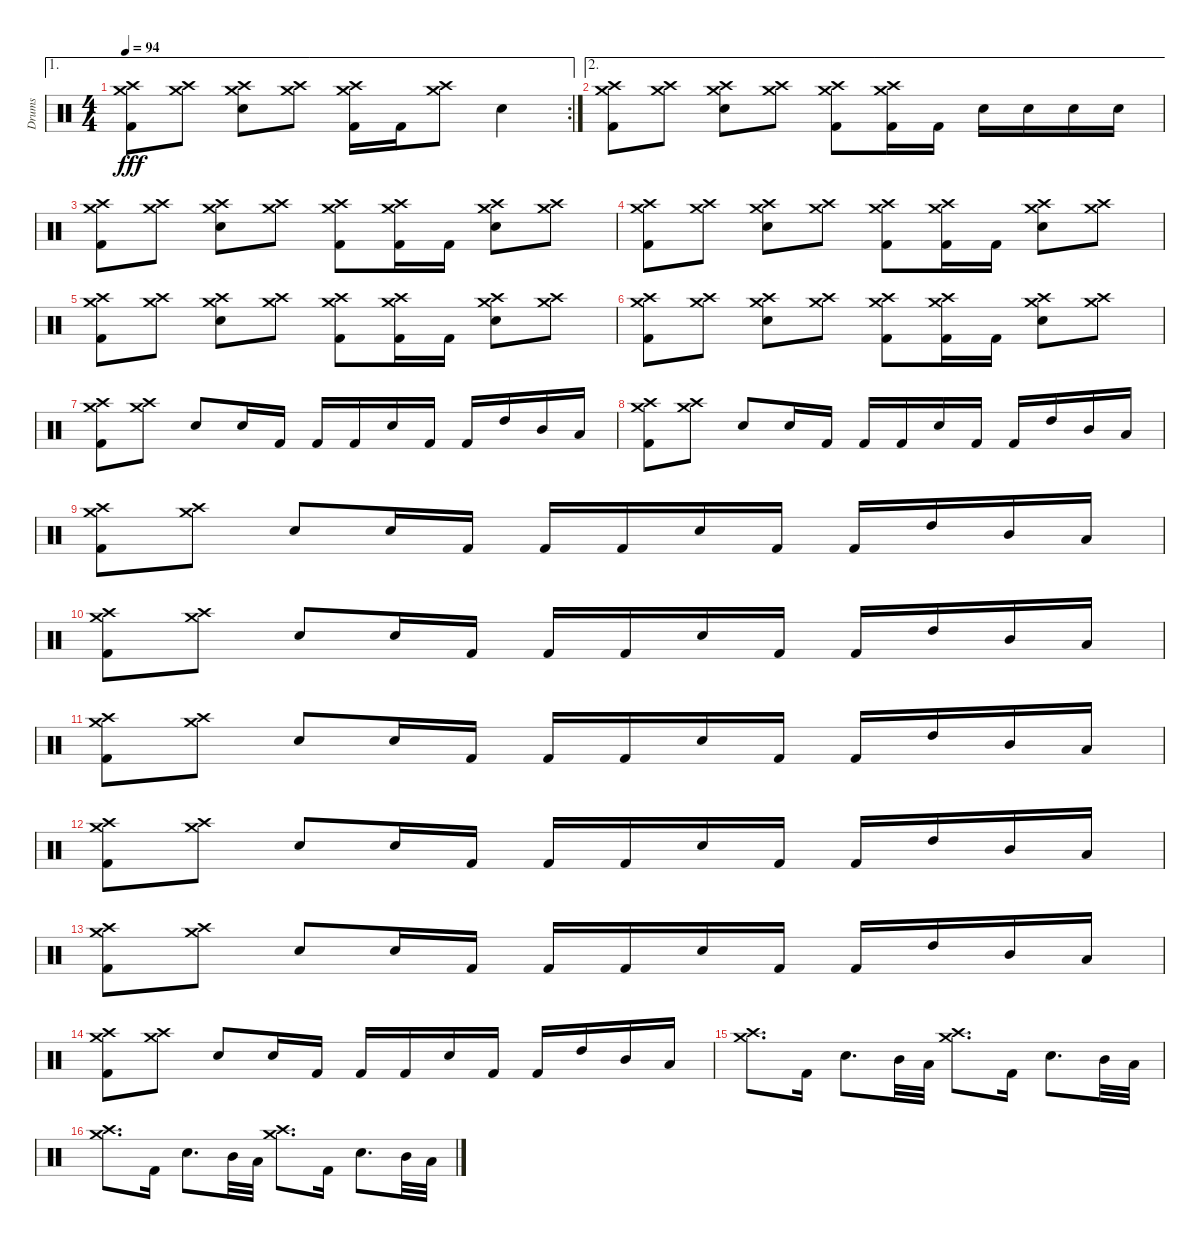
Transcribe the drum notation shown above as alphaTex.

\track ("Drums" "Drums") {instrument percussion}
\staff {score}
\articulation defaults
\ae 1
\rc 2
\ts (4 4)
\tempo 94
\clef neutral
\ks c
("Crash high (hit)" "Crash medium (hit)" "Kick (hit) 2").8{dy fff} ("Crash high (hit)" "Crash medium (hit)").8 ("Crash high (hit)" "Crash medium (hit)" "Snare (hit) 2").8 ("Crash high (hit)" "Crash medium (hit)").8 ("Crash high (hit)" "Crash medium (hit)" "Kick (hit) 2").16 "Kick (hit) 2".16 ("Crash high (hit)" "Crash medium (hit)").8 "Snare (hit) 2".4 |
\ae 2
("Crash high (hit)" "Crash medium (hit)" "Kick (hit) 2").8 ("Crash high (hit)" "Crash medium (hit)").8 ("Crash high (hit)" "Crash medium (hit)" "Snare (hit) 2").8 ("Crash high (hit)" "Crash medium (hit)").8 ("Crash high (hit)" "Crash medium (hit)" "Kick (hit) 2").8 ("Crash high (hit)" "Crash medium (hit)" "Kick (hit) 2").16 "Kick (hit) 2".16 "Snare (hit) 2".16 "Snare (hit) 2".16 "Snare (hit) 2".16 "Snare (hit) 2".16 |
("Crash high (hit)" "Crash medium (hit)" "Kick (hit) 2").8 ("Crash high (hit)" "Crash medium (hit)").8 ("Crash high (hit)" "Crash medium (hit)" "Snare (hit) 2").8 ("Crash high (hit)" "Crash medium (hit)").8 ("Crash high (hit)" "Crash medium (hit)" "Kick (hit) 2").8 ("Crash high (hit)" "Crash medium (hit)" "Kick (hit) 2").16 "Kick (hit) 2".16 ("Crash high (hit)" "Crash medium (hit)" "Snare (hit) 2").8 ("Crash high (hit)" "Crash medium (hit)").8 |
("Crash high (hit)" "Crash medium (hit)" "Kick (hit) 2").8 ("Crash high (hit)" "Crash medium (hit)").8 ("Crash high (hit)" "Crash medium (hit)" "Snare (hit) 2").8 ("Crash high (hit)" "Crash medium (hit)").8 ("Crash high (hit)" "Crash medium (hit)" "Kick (hit) 2").8 ("Crash high (hit)" "Crash medium (hit)" "Kick (hit) 2").16 "Kick (hit) 2".16 ("Crash high (hit)" "Crash medium (hit)" "Snare (hit) 2").8 ("Crash high (hit)" "Crash medium (hit)").8 |
("Crash high (hit)" "Crash medium (hit)" "Kick (hit) 2").8 ("Crash high (hit)" "Crash medium (hit)").8 ("Crash high (hit)" "Crash medium (hit)" "Snare (hit) 2").8 ("Crash high (hit)" "Crash medium (hit)").8 ("Crash high (hit)" "Crash medium (hit)" "Kick (hit) 2").8 ("Crash high (hit)" "Crash medium (hit)" "Kick (hit) 2").16 "Kick (hit) 2".16 ("Crash high (hit)" "Crash medium (hit)" "Snare (hit) 2").8 ("Crash high (hit)" "Crash medium (hit)").8 |
("Crash high (hit)" "Crash medium (hit)" "Kick (hit) 2").8 ("Crash high (hit)" "Crash medium (hit)").8 ("Crash high (hit)" "Crash medium (hit)" "Snare (hit) 2").8 ("Crash high (hit)" "Crash medium (hit)").8 ("Crash high (hit)" "Crash medium (hit)" "Kick (hit) 2").8 ("Crash high (hit)" "Crash medium (hit)" "Kick (hit) 2").16 "Kick (hit) 2".16 ("Crash high (hit)" "Crash medium (hit)" "Snare (hit) 2").8 ("Crash high (hit)" "Crash medium (hit)").8 |
("Crash high (hit)" "Crash medium (hit)" "Kick (hit) 2").8 ("Crash high (hit)" "Crash medium (hit)").8 "Snare (hit) 2".8 "Snare (hit) 2".16 "Kick (hit) 2".16 "Kick (hit) 2".16 "Kick (hit) 2".16 "Snare (hit) 2".16 "Kick (hit) 2".16 "Kick (hit) 2".16 "High Tom (hit)".16 "Mid Tom (hit)".16 "Low Tom (hit)".16 |
("Crash high (hit)" "Crash medium (hit)" "Kick (hit) 2").8 ("Crash high (hit)" "Crash medium (hit)").8 "Snare (hit) 2".8 "Snare (hit) 2".16 "Kick (hit) 2".16 "Kick (hit) 2".16 "Kick (hit) 2".16 "Snare (hit) 2".16 "Kick (hit) 2".16 "Kick (hit) 2".16 "High Tom (hit)".16 "Mid Tom (hit)".16 "Low Tom (hit)".16 |
("Crash high (hit)" "Crash medium (hit)" "Kick (hit) 2").8 ("Crash high (hit)" "Crash medium (hit)").8 "Snare (hit) 2".8 "Snare (hit) 2".16 "Kick (hit) 2".16 "Kick (hit) 2".16 "Kick (hit) 2".16 "Snare (hit) 2".16 "Kick (hit) 2".16 "Kick (hit) 2".16 "High Tom (hit)".16 "Mid Tom (hit)".16 "Low Tom (hit)".16 |
("Crash high (hit)" "Crash medium (hit)" "Kick (hit) 2").8 ("Crash high (hit)" "Crash medium (hit)").8 "Snare (hit) 2".8 "Snare (hit) 2".16 "Kick (hit) 2".16 "Kick (hit) 2".16 "Kick (hit) 2".16 "Snare (hit) 2".16 "Kick (hit) 2".16 "Kick (hit) 2".16 "High Tom (hit)".16 "Mid Tom (hit)".16 "Low Tom (hit)".16 |
("Crash high (hit)" "Crash medium (hit)" "Kick (hit) 2").8 ("Crash high (hit)" "Crash medium (hit)").8 "Snare (hit) 2".8 "Snare (hit) 2".16 "Kick (hit) 2".16 "Kick (hit) 2".16 "Kick (hit) 2".16 "Snare (hit) 2".16 "Kick (hit) 2".16 "Kick (hit) 2".16 "High Tom (hit)".16 "Mid Tom (hit)".16 "Low Tom (hit)".16 |
("Crash high (hit)" "Crash medium (hit)" "Kick (hit) 2").8 ("Crash high (hit)" "Crash medium (hit)").8 "Snare (hit) 2".8 "Snare (hit) 2".16 "Kick (hit) 2".16 "Kick (hit) 2".16 "Kick (hit) 2".16 "Snare (hit) 2".16 "Kick (hit) 2".16 "Kick (hit) 2".16 "High Tom (hit)".16 "Mid Tom (hit)".16 "Low Tom (hit)".16 |
("Crash high (hit)" "Crash medium (hit)" "Kick (hit) 2").8 ("Crash high (hit)" "Crash medium (hit)").8 "Snare (hit) 2".8 "Snare (hit) 2".16 "Kick (hit) 2".16 "Kick (hit) 2".16 "Kick (hit) 2".16 "Snare (hit) 2".16 "Kick (hit) 2".16 "Kick (hit) 2".16 "High Tom (hit)".16 "Mid Tom (hit)".16 "Low Tom (hit)".16 |
("Crash high (hit)" "Crash medium (hit)" "Kick (hit) 2").8 ("Crash high (hit)" "Crash medium (hit)").8 "Snare (hit) 2".8 "Snare (hit) 2".16 "Kick (hit) 2".16 "Kick (hit) 2".16 "Kick (hit) 2".16 "Snare (hit) 2".16 "Kick (hit) 2".16 "Kick (hit) 2".16 "High Tom (hit)".16 "Mid Tom (hit)".16 "Low Tom (hit)".16 |
("Crash high (hit)" "Crash medium (hit)").8{d} "Kick (hit) 2".16 "Snare (hit) 2".8{d} "Mid Tom (hit)".32 "Low Tom (hit)".32 ("Crash high (hit)" "Crash medium (hit)").8{d} "Kick (hit) 2".16 "Snare (hit) 2".8{d} "Mid Tom (hit)".32 "Low Tom (hit)".32 |
("Crash high (hit)" "Crash medium (hit)").8{d} "Kick (hit) 2".16 "Snare (hit) 2".8{d} "Mid Tom (hit)".32 "Low Tom (hit)".32 ("Crash high (hit)" "Crash medium (hit)").8{d} "Kick (hit) 2".16 "Snare (hit) 2".8{d} "Mid Tom (hit)".32 "Low Tom (hit)".32
